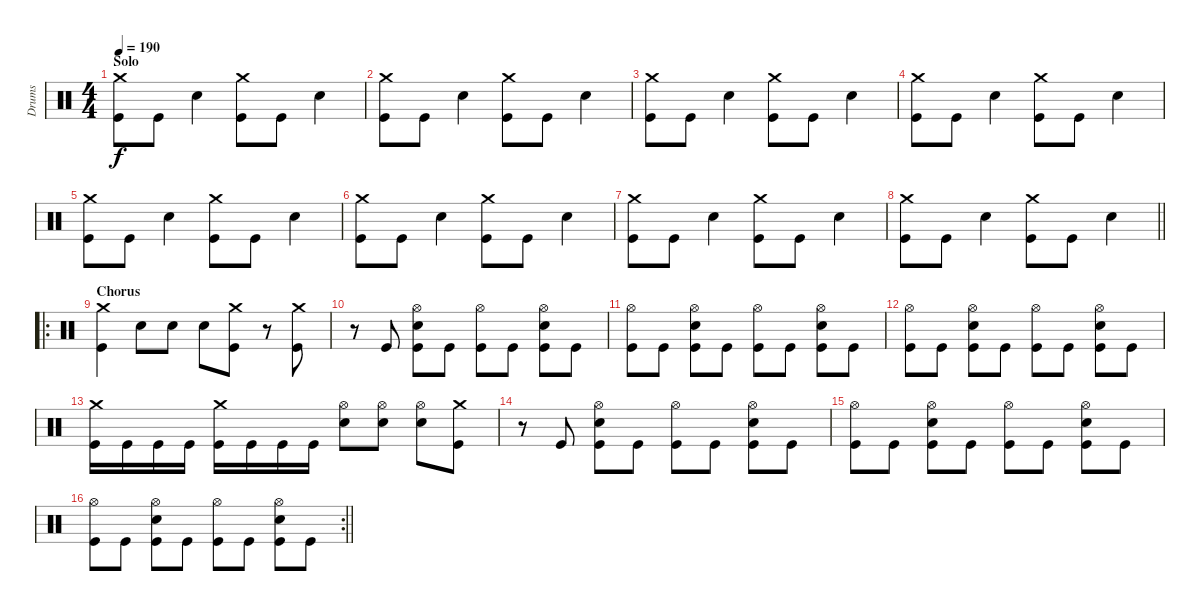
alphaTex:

\track ("Drums" "Drums") {instrument percussion}
\staff {score}
\articulation defaults
\ts (4 4)
\section ("" "Solo")
\tempo 190
\clef neutral
\ks c
("Crash medium (hit)" "Kick (hit)").8{dy f} "Kick (hit)".8 "Snare (hit) 2".4 ("Crash medium (hit)" "Kick (hit)").8 "Kick (hit)".8 "Snare (hit) 2".4 |
("Crash medium (hit)" "Kick (hit)").8 "Kick (hit)".8 "Snare (hit) 2".4 ("Crash medium (hit)" "Kick (hit)").8 "Kick (hit)".8 "Snare (hit) 2".4 |
("Crash medium (hit)" "Kick (hit)").8 "Kick (hit)".8 "Snare (hit) 2".4 ("Crash medium (hit)" "Kick (hit)").8 "Kick (hit)".8 "Snare (hit) 2".4 |
("Crash medium (hit)" "Kick (hit)").8 "Kick (hit)".8 "Snare (hit) 2".4 ("Crash medium (hit)" "Kick (hit)").8 "Kick (hit)".8 "Snare (hit) 2".4 |
("Crash medium (hit)" "Kick (hit)").8 "Kick (hit)".8 "Snare (hit) 2".4 ("Crash medium (hit)" "Kick (hit)").8 "Kick (hit)".8 "Snare (hit) 2".4 |
("Crash medium (hit)" "Kick (hit)").8 "Kick (hit)".8 "Snare (hit) 2".4 ("Crash medium (hit)" "Kick (hit)").8 "Kick (hit)".8 "Snare (hit) 2".4 |
("Crash medium (hit)" "Kick (hit)").8 "Kick (hit)".8 "Snare (hit) 2".4 ("Crash medium (hit)" "Kick (hit)").8 "Kick (hit)".8 "Snare (hit) 2".4 |
\barLineRight lightlight
("Crash medium (hit)" "Kick (hit)").8 "Kick (hit)".8 "Snare (hit) 2".4 ("Crash medium (hit)" "Kick (hit)").8 "Kick (hit)".8 "Snare (hit) 2".4 |
\ro
\section ("" "Chorus")
("Crash medium (hit)" "Kick (hit)").4 "Snare (hit) 2".8 "Snare (hit) 2".8 "Snare (hit) 2".8 ("Crash medium (hit)" "Kick (hit)").8 r.8 ("Crash medium (hit)" "Kick (hit)").8 |
r.8 "Kick (hit)".8 ("Hi-Hat (open)" "Snare (hit) 2" "Kick (hit)").8 "Kick (hit)".8 ("Hi-Hat (open)" "Kick (hit)").8 "Kick (hit)".8 ("Hi-Hat (open)" "Snare (hit) 2" "Kick (hit)").8 "Kick (hit)".8 |
("Hi-Hat (open)" "Kick (hit)").8 "Kick (hit)".8 ("Hi-Hat (open)" "Snare (hit) 2" "Kick (hit)").8 "Kick (hit)".8 ("Hi-Hat (open)" "Kick (hit)").8 "Kick (hit)".8 ("Hi-Hat (open)" "Snare (hit) 2" "Kick (hit)").8 "Kick (hit)".8 |
("Hi-Hat (open)" "Kick (hit)").8 "Kick (hit)".8 ("Hi-Hat (open)" "Snare (hit) 2" "Kick (hit)").8 "Kick (hit)".8 ("Hi-Hat (open)" "Kick (hit)").8 "Kick (hit)".8 ("Hi-Hat (open)" "Snare (hit) 2" "Kick (hit)").8 "Kick (hit)".8 |
("Crash medium (hit)" "Kick (hit)").16 "Kick (hit)".16 "Kick (hit)".16 "Kick (hit)".16 ("Crash medium (hit)" "Kick (hit)").16 "Kick (hit)".16 "Kick (hit)".16 "Kick (hit)".16 ("Hi-Hat (open)" "Snare (hit) 2").8 ("Hi-Hat (open)" "Snare (hit) 2").8 ("Hi-Hat (open)" "Snare (hit) 2").8 ("Crash medium (hit)" "Kick (hit)").8 |
r.8 "Kick (hit)".8 ("Hi-Hat (open)" "Snare (hit) 2" "Kick (hit)").8 "Kick (hit)".8 ("Hi-Hat (open)" "Kick (hit)").8 "Kick (hit)".8 ("Hi-Hat (open)" "Snare (hit) 2" "Kick (hit)").8 "Kick (hit)".8 |
("Hi-Hat (open)" "Kick (hit)").8 "Kick (hit)".8 ("Hi-Hat (open)" "Snare (hit) 2" "Kick (hit)").8 "Kick (hit)".8 ("Hi-Hat (open)" "Kick (hit)").8 "Kick (hit)".8 ("Hi-Hat (open)" "Snare (hit) 2" "Kick (hit)").8 "Kick (hit)".8 |
\rc 2
\barLineRight lightlight
("Hi-Hat (open)" "Kick (hit)").8 "Kick (hit)".8 ("Hi-Hat (open)" "Snare (hit) 2" "Kick (hit)").8 "Kick (hit)".8 ("Hi-Hat (open)" "Kick (hit)").8 "Kick (hit)".8 ("Hi-Hat (open)" "Snare (hit) 2" "Kick (hit)").8 "Kick (hit)".8
